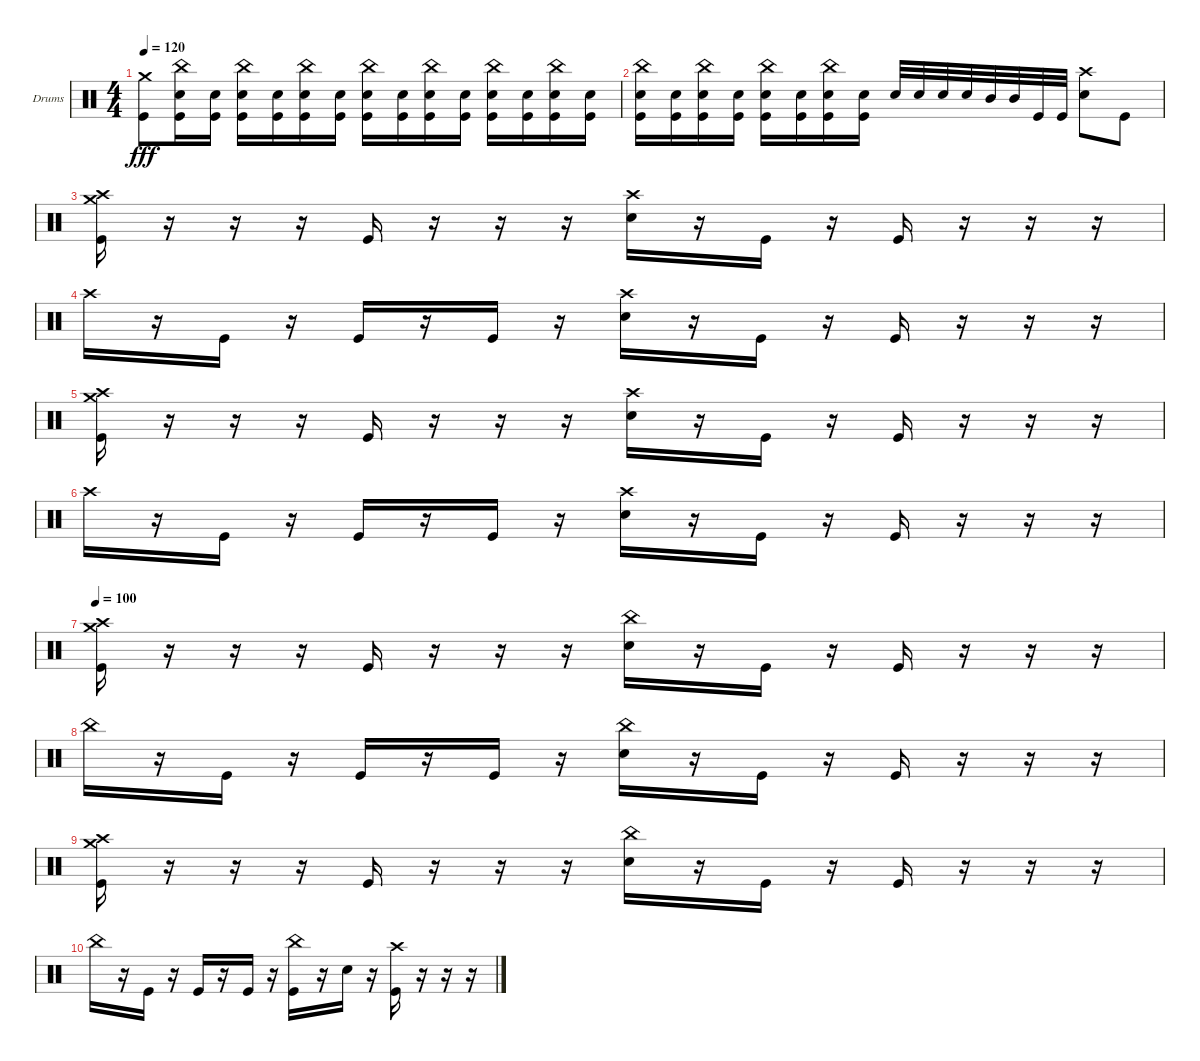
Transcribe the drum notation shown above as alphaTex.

\bracketExtendMode groupsimilarinstruments
\firstSystemTrackNameOrientation horizontal
\otherSystemsTrackNameOrientation horizontal
\track ("Drumkit" "Drums") {instrument percussion}
\staff {score}
\articulation defaults
\ts (4 4)
\tempo 120
\clef neutral
\ks c
("Kick (hit)" "Crash medium (hit)").8{dy fff} ("Snare (hit) 2" "Kick (hit)" "China (hit)").16 ("Snare (hit) 2" "Kick (hit)").16 ("Snare (hit) 2" "Kick (hit)" "China (hit)").16 ("Snare (hit) 2" "Kick (hit)").16 ("Snare (hit) 2" "Kick (hit)" "China (hit)").16 ("Snare (hit) 2" "Kick (hit)").16 ("Snare (hit) 2" "Kick (hit)" "China (hit)").16 ("Snare (hit) 2" "Kick (hit)").16 ("Snare (hit) 2" "Kick (hit)" "China (hit)").16 ("Snare (hit) 2" "Kick (hit)").16 ("Snare (hit) 2" "Kick (hit)" "China (hit)").16 ("Snare (hit) 2" "Kick (hit)").16 ("Snare (hit) 2" "Kick (hit)" "China (hit)").16 ("Snare (hit) 2" "Kick (hit)").16 |
("Snare (hit) 2" "Kick (hit)" "China (hit)").16 ("Snare (hit) 2" "Kick (hit)").16 ("Snare (hit) 2" "Kick (hit)" "China (hit)").16 ("Snare (hit) 2" "Kick (hit)").16 ("Snare (hit) 2" "Kick (hit)" "China (hit)").16 ("Snare (hit) 2" "Kick (hit)").16 ("Snare (hit) 2" "Kick (hit)" "China (hit)").16 ("Snare (hit) 2" "Kick (hit)").16 "Snare (hit) 2".32 "Snare (hit) 2".32 "Snare (hit) 2".32 "Snare (hit) 2".32 "Mid Tom (hit)".32 "Mid Tom (hit)".32 "Kick (hit)".32 "Kick (hit)".32 ("Snare (hit) 2" "Crash high (hit)").8 "Kick (hit)".8 |
("Kick (hit)" "Crash medium (hit)" "Crash high (hit)").16 r.16 r.16 r.16 "Kick (hit)".16 r.16 r.16 r.16 ("Crash high (hit)" "Snare (hit) 2").16 r.16 "Kick (hit)".16 r.16 "Kick (hit)".16 r.16 r.16 r.16 |
"Crash high (hit)".16 r.16 "Kick (hit)".16 r.16 "Kick (hit)".16 r.16 "Kick (hit)".16 r.16 ("Crash high (hit)" "Snare (hit) 2").16 r.16 "Kick (hit)".16 r.16 "Kick (hit)".16 r.16 r.16 r.16 |
("Kick (hit)" "Crash medium (hit)" "Crash high (hit)").16 r.16 r.16 r.16 "Kick (hit)".16 r.16 r.16 r.16 ("Crash high (hit)" "Snare (hit) 2").16 r.16 "Kick (hit)".16 r.16 "Kick (hit)".16 r.16 r.16 r.16 |
"Crash high (hit)".16 r.16 "Kick (hit)".16 r.16 "Kick (hit)".16 r.16 "Kick (hit)".16 r.16 ("Crash high (hit)" "Snare (hit) 2").16 r.16 "Kick (hit)".16 r.16 "Kick (hit)".16 r.16 r.16 r.16 |
\tempo 100
("Kick (hit)" "Crash medium (hit)" "Crash high (hit)").16 r.16 r.16 r.16 "Kick (hit)".16 r.16 r.16 r.16 ("Snare (hit) 2" "China (hit)").16 r.16 "Kick (hit)".16 r.16 "Kick (hit)".16 r.16 r.16 r.16 |
"China (hit)".16 r.16 "Kick (hit)".16 r.16 "Kick (hit)".16 r.16 "Kick (hit)".16 r.16 ("Snare (hit) 2" "China (hit)").16 r.16 "Kick (hit)".16 r.16 "Kick (hit)".16 r.16 r.16 r.16 |
("Kick (hit)" "Crash medium (hit)" "Crash high (hit)").16 r.16 r.16 r.16 "Kick (hit)".16 r.16 r.16 r.16 ("Snare (hit) 2" "China (hit)").16 r.16 "Kick (hit)".16 r.16 "Kick (hit)".16 r.16 r.16 r.16 |
"China (hit)".16 r.16 "Kick (hit)".16 r.16 "Kick (hit)".16 r.16 "Kick (hit)".16 r.16 ("China (hit)" "Kick (hit)").16 r.16 "Snare (hit) 2".16 r.16 ("Kick (hit)" "Crash high (hit)").16 r.16 r.16 r.16
